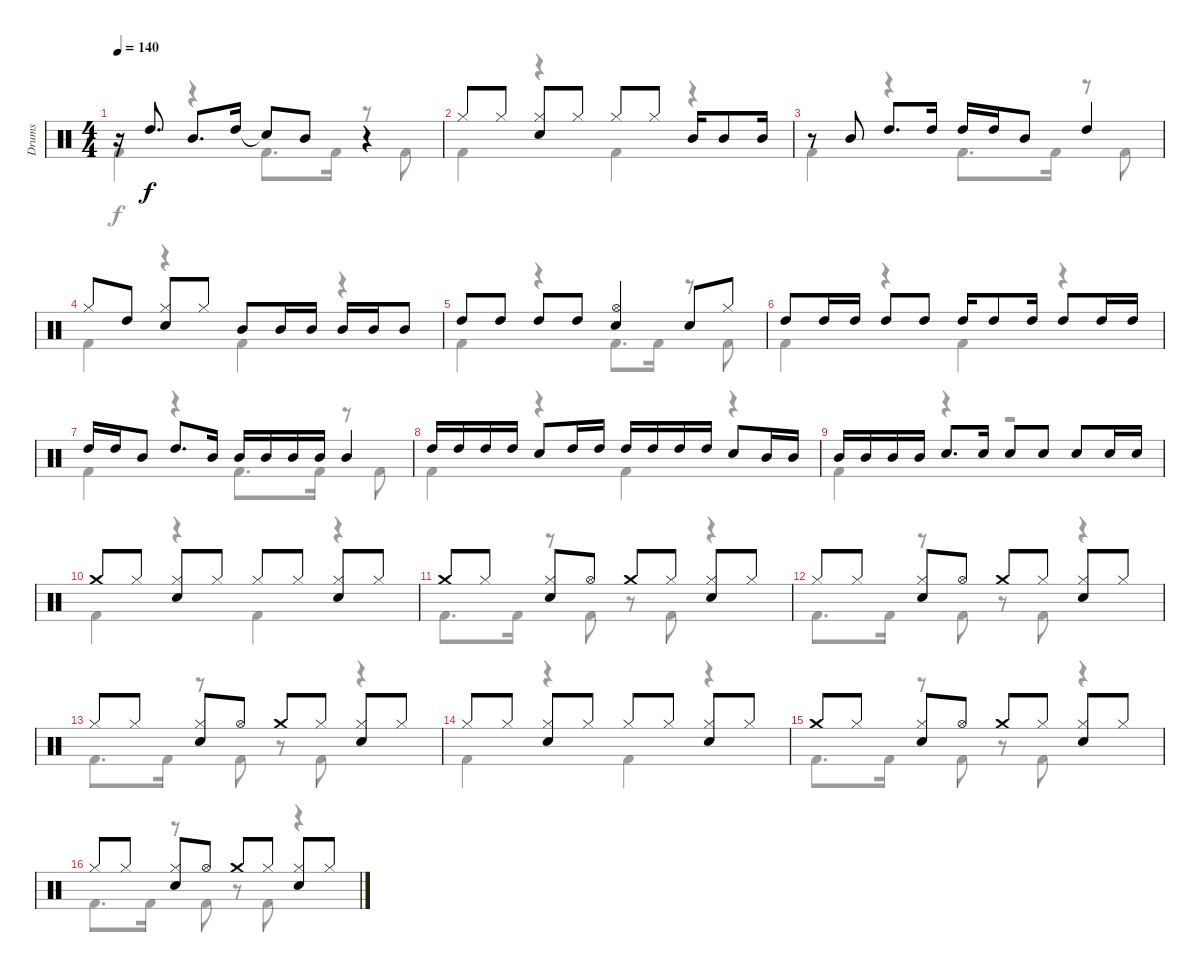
\track ("Drums" "Drums") {instrument percussion}
\staff {score}
\articulation defaults
\voice
\ts (4 4)
\tempo 140
\clef neutral
\ks c
r.16{dy f} "High Tom (hit)".8{d} "Mid Tom (hit)".8{d} "High Tom (hit)".16 "Snare (hit)"{t}.8 "Mid Tom (hit)".8 r.4 |
"Hi-Hat (closed)".8 "Hi-Hat (closed)".8 ("Hi-Hat (closed)" "Snare (hit) 2").8 "Hi-Hat (closed)".8 "Hi-Hat (closed)".8 "Hi-Hat (closed)".8 "Mid Tom (hit)".16 "Mid Tom (hit)".8 "Mid Tom (hit)".16 |
r.8 "Mid Tom (hit)".8 "High Tom (hit)".8{d} "High Tom (hit)".16 "High Tom (hit)".16 "High Tom (hit)".16 "Mid Tom (hit)".8 "High Tom (hit)".4 |
"Hi-Hat (closed)".8 "High Tom (hit)".8 ("Hi-Hat (closed)" "Snare (hit) 2").8 "Hi-Hat (closed)".8 "Mid Tom (hit)".8 "Mid Tom (hit)".16 "Mid Tom (hit)".16 "Mid Tom (hit)".16 "Mid Tom (hit)".16 "Mid Tom (hit)".8 |
"High Tom (hit)".8 "High Tom (hit)".8 "High Tom (hit)".8 "High Tom (hit)".8 ("Hi-Hat (open)" "Snare (hit) 2").4 "Snare (hit) 2".8 "Hi-Hat (closed)".8 |
"High Tom (hit)".8 "High Tom (hit)".16 "High Tom (hit)".16 "High Tom (hit)".8 "High Tom (hit)".8 "High Tom (hit)".16 "High Tom (hit)".8 "High Tom (hit)".16 "High Tom (hit)".8 "High Tom (hit)".16 "High Tom (hit)".16 |
"High Tom (hit)".16 "High Tom (hit)".16 "Mid Tom (hit)".8 "High Tom (hit)".8{d} "Mid Tom (hit)".16 "Mid Tom (hit)".16 "Mid Tom (hit)".16 "Mid Tom (hit)".16 "Mid Tom (hit)".16 "Mid Tom (hit)".4 |
"High Tom (hit)".16 "High Tom (hit)".16 "High Tom (hit)".16 "High Tom (hit)".16 "Snare (hit) 2".8 "High Tom (hit)".16 "High Tom (hit)".16 "High Tom (hit)".16 "High Tom (hit)".16 "High Tom (hit)".16 "High Tom (hit)".16 "Snare (hit) 2".8 "Mid Tom (hit)".16 "Mid Tom (hit)".16 |
"Mid Tom (hit)".16 "Mid Tom (hit)".16 "Mid Tom (hit)".16 "Mid Tom (hit)".16 "Snare (hit) 2".8{d} "Snare (hit) 2".16 "Snare (hit) 2".8 "Snare (hit) 2".8 "Snare (hit) 2".8 "Snare (hit) 2".16 "Snare (hit) 2".16 |
"Crash medium (hit)".8 "Hi-Hat (closed)".8 ("Hi-Hat (closed)" "Snare (hit) 2").8 "Hi-Hat (closed)".8 "Hi-Hat (closed)".8 "Hi-Hat (closed)".8 ("Hi-Hat (closed)" "Snare (hit) 2").8 "Hi-Hat (closed)".8 |
"Crash medium (hit)".8 "Hi-Hat (closed)".8 ("Hi-Hat (closed)" "Snare (hit) 2").8 "Hi-Hat (open)".8 "Crash medium (hit)".8 "Hi-Hat (closed)".8 ("Hi-Hat (closed)" "Snare (hit) 2").8 "Hi-Hat (closed)".8 |
"Hi-Hat (closed)".8 "Hi-Hat (closed)".8 ("Hi-Hat (closed)" "Snare (hit) 2").8 "Hi-Hat (open)".8 "Crash medium (hit)".8 "Hi-Hat (closed)".8 ("Hi-Hat (closed)" "Snare (hit) 2").8 "Hi-Hat (closed)".8 |
"Hi-Hat (closed)".8 "Hi-Hat (closed)".8 ("Hi-Hat (closed)" "Snare (hit) 2").8 "Hi-Hat (open)".8 "Crash medium (hit)".8 "Hi-Hat (closed)".8 ("Hi-Hat (closed)" "Snare (hit) 2").8 "Hi-Hat (closed)".8 |
"Hi-Hat (closed)".8 "Hi-Hat (closed)".8 ("Hi-Hat (closed)" "Snare (hit) 2").8 "Hi-Hat (closed)".8 "Hi-Hat (closed)".8 "Hi-Hat (closed)".8 ("Hi-Hat (closed)" "Snare (hit) 2").8 "Hi-Hat (closed)".8 |
"Crash medium (hit)".8 "Hi-Hat (closed)".8 ("Hi-Hat (closed)" "Snare (hit) 2").8 "Hi-Hat (open)".8 "Crash medium (hit)".8 "Hi-Hat (closed)".8 ("Hi-Hat (closed)" "Snare (hit) 2").8 "Hi-Hat (closed)".8 |
"Hi-Hat (closed)".8 "Hi-Hat (closed)".8 ("Hi-Hat (closed)" "Snare (hit) 2").8 "Hi-Hat (open)".8 "Crash medium (hit)".8 "Hi-Hat (closed)".8 ("Hi-Hat (closed)" "Snare (hit) 2").8 "Hi-Hat (closed)".8
\voice
\clef neutral
\ottava regular
\simile none
\ks c "Kick (hit) 2".4{dy f}
r.4 "Kick (hit) 2".8{d} "Kick (hit) 2".16 r.8 "Kick (hit) 2".8 |
"Kick (hit) 2".4 r.4 "Kick (hit) 2".4 r.4 |
"Kick (hit) 2".4 r.4 "Kick (hit) 2".8{d} "Kick (hit) 2".16 r.8 "Kick (hit) 2".8 |
"Kick (hit) 2".4 r.4 "Kick (hit) 2".4 r.4 |
"Kick (hit) 2".4 r.4 "Kick (hit) 2".8{d} "Kick (hit) 2".16 r.8 "Kick (hit) 2".8 |
"Kick (hit) 2".4 r.4 "Kick (hit) 2".4 r.4 |
"Kick (hit) 2".4 r.4 "Kick (hit) 2".8{d} "Kick (hit) 2".16 r.8 "Kick (hit) 2".8 |
"Kick (hit) 2".4 r.4 "Kick (hit) 2".4 r.4 |
"Kick (hit) 2".4 r.4 r.2 |
"Kick (hit) 2".4 r.4 "Kick (hit) 2".4 r.4 |
"Kick (hit) 2".8{d} "Kick (hit) 2".16 r.8 "Kick (hit) 2".8 r.8 "Kick (hit) 2".8 r.4 |
"Kick (hit) 2".8{d} "Kick (hit) 2".16 r.8 "Kick (hit) 2".8 r.8 "Kick (hit) 2".8 r.4 |
"Kick (hit) 2".8{d} "Kick (hit) 2".16 r.8 "Kick (hit) 2".8 r.8 "Kick (hit) 2".8 r.4 |
"Kick (hit) 2".4 r.4 "Kick (hit) 2".4 r.4 |
"Kick (hit) 2".8{d} "Kick (hit) 2".16 r.8 "Kick (hit) 2".8 r.8 "Kick (hit) 2".8 r.4 |
"Kick (hit) 2".8{d} "Kick (hit) 2".16 r.8 "Kick (hit) 2".8 r.8 "Kick (hit) 2".8 r.4
